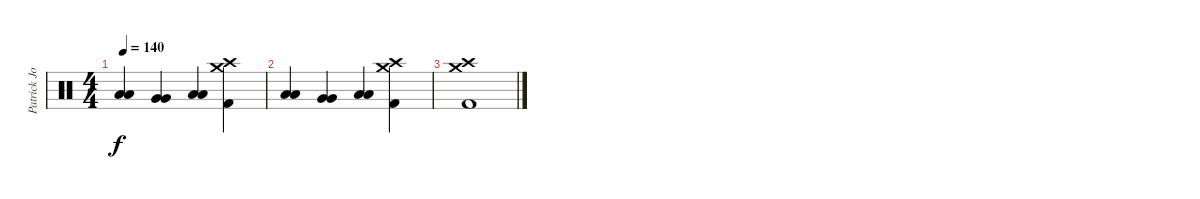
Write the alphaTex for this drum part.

\track ("Patrick Johansson" "Patrick Jo") {instrument percussion}
\staff {score}
\articulation defaults
\ts (4 4)
\tempo 140
\clef neutral
\ks c
("Low Tom (hit)" "Low Tom (hit)").4{dy f} ("Very Low Tom (hit)" "Very Low Tom (hit)").4 ("Low Tom (hit)" "Low Tom (hit)").4 ("Crash medium (hit)" "Crash high (hit)" "Kick (hit) 2").4 |
("Low Tom (hit)" "Low Tom (hit)").4 ("Very Low Tom (hit)" "Very Low Tom (hit)").4 ("Low Tom (hit)" "Low Tom (hit)").4 ("Crash medium (hit)" "Crash high (hit)" "Kick (hit) 2").4 |
("Crash medium (hit)" "Crash high (hit)" "Kick (hit) 2").1
